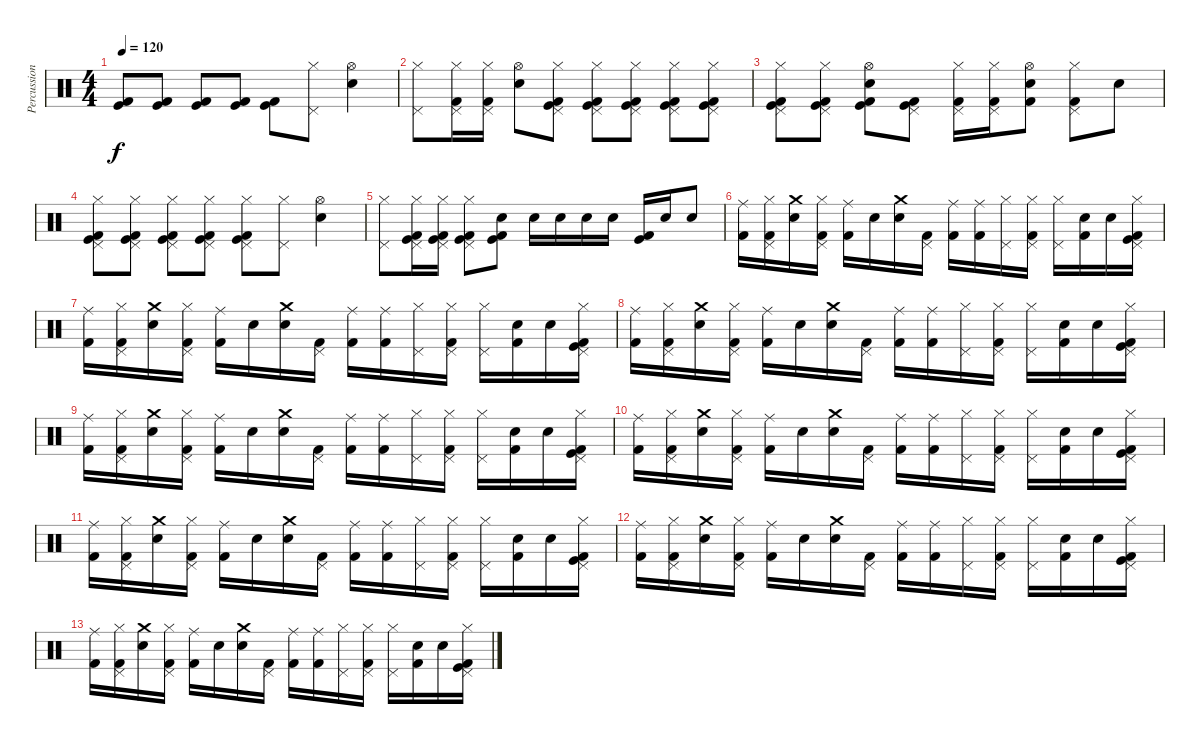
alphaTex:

\track ("Percussion" "Percussion") {instrument percussion}
\staff {score}
\articulation defaults
\ts (4 4)
\tempo 120
\clef neutral
\ks c
("Kick (hit) 2" "Kick (hit)").8{dy f} ("Kick (hit) 2" "Kick (hit)").8 ("Kick (hit) 2" "Kick (hit)").8 ("Kick (hit) 2" "Kick (hit)").8 ("Kick (hit) 2" "Kick (hit)").8 ("Pedal Hi-Hat (hit)" "Hi-Hat (closed)").8 ("Snare (hit) 2" "Hi-Hat (open)").4 |
("Pedal Hi-Hat (hit)" "Hi-Hat (closed)").8 ("Kick (hit) 2" "Pedal Hi-Hat (hit)" "Hi-Hat (closed)").16 ("Kick (hit) 2" "Pedal Hi-Hat (hit)" "Hi-Hat (closed)").16 ("Snare (hit) 2" "Hi-Hat (open)").8 ("Kick (hit) 2" "Pedal Hi-Hat (hit)" "Hi-Hat (closed)" "Kick (hit)").8 ("Kick (hit) 2" "Pedal Hi-Hat (hit)" "Hi-Hat (closed)" "Kick (hit)").8 ("Kick (hit) 2" "Pedal Hi-Hat (hit)" "Hi-Hat (closed)" "Kick (hit)").8 ("Kick (hit) 2" "Pedal Hi-Hat (hit)" "Hi-Hat (closed)" "Kick (hit)").8 ("Kick (hit) 2" "Pedal Hi-Hat (hit)" "Hi-Hat (closed)" "Kick (hit)").8 |
("Kick (hit) 2" "Pedal Hi-Hat (hit)" "Hi-Hat (closed)" "Kick (hit)").8 ("Kick (hit) 2" "Pedal Hi-Hat (hit)" "Hi-Hat (closed)" "Kick (hit)").8 ("Kick (hit) 2" "Snare (hit) 2" "Hi-Hat (open)" "Kick (hit)").8 ("Kick (hit)" "Kick (hit) 2" "Pedal Hi-Hat (hit)").8 ("Pedal Hi-Hat (hit)" "Hi-Hat (closed)" "Kick (hit) 2").16 ("Pedal Hi-Hat (hit)" "Hi-Hat (closed)" "Kick (hit) 2").16 ("Hi-Hat (open)" "Kick (hit) 2" "Snare (hit) 2").8 ("Pedal Hi-Hat (hit)" "Hi-Hat (closed)" "Kick (hit) 2").8 "Snare (hit) 2".8 |
("Hi-Hat (closed)" "Pedal Hi-Hat (hit)" "Kick (hit) 2" "Kick (hit)").8 ("Pedal Hi-Hat (hit)" "Hi-Hat (closed)" "Kick (hit) 2" "Kick (hit)").8 ("Pedal Hi-Hat (hit)" "Hi-Hat (closed)" "Kick (hit) 2" "Kick (hit)").8 ("Hi-Hat (closed)" "Pedal Hi-Hat (hit)" "Kick (hit) 2" "Kick (hit)").8 ("Hi-Hat (closed)" "Pedal Hi-Hat (hit)" "Kick (hit) 2" "Kick (hit)").8 ("Pedal Hi-Hat (hit)" "Hi-Hat (closed)").8 ("Snare (hit) 2" "Hi-Hat (open)").4 |
("Hi-Hat (closed)" "Pedal Hi-Hat (hit)").8 ("Kick (hit)" "Kick (hit) 2" "Pedal Hi-Hat (hit)" "Hi-Hat (closed)").16 ("Kick (hit) 2" "Kick (hit)" "Pedal Hi-Hat (hit)" "Hi-Hat (closed)").16 ("Kick (hit) 2" "Kick (hit)" "Pedal Hi-Hat (hit)" "Hi-Hat (closed)").8 ("Kick (hit) 2" "Kick (hit)" "Snare (hit) 2").8 "Snare (hit) 2".16 "Electric Snare (hit)".16 "Electric Snare (hit)".16 "Electric Snare (hit)".16 ("Kick (hit) 2" "Kick (hit)").16 "Electric Snare (hit)".16 "Snare (hit) 2".8 |
("Ride (middle)" "Kick (hit) 2").16 ("Hi-Hat (closed)" "Pedal Hi-Hat (hit)" "Kick (hit) 2").16 ("Crash medium (hit)" "Snare (hit) 2").16 ("Pedal Hi-Hat (hit)" "Kick (hit) 2" "Hi-Hat (closed)").16 ("Kick (hit) 2" "Ride (middle)").16 "Snare (hit) 2".16 ("Crash medium (hit)" "Electric Snare (hit)").16 ("Kick (hit) 2" "Pedal Hi-Hat (hit)").16 ("Ride (middle)" "Kick (hit) 2").16 ("Ride (middle)" "Kick (hit) 2").16 ("Hi-Hat (closed)" "Pedal Hi-Hat (hit)").16 ("Kick (hit) 2" "Pedal Hi-Hat (hit)" "Hi-Hat (closed)").16 ("Pedal Hi-Hat (hit)" "Hi-Hat (closed)").16 ("Kick (hit) 2" "Snare (hit) 2").16 "Snare (hit) 2".16 ("Kick (hit) 2" "Kick (hit)" "Pedal Hi-Hat (hit)" "Hi-Hat (closed)").16 |
("Ride (middle)" "Kick (hit) 2").16 ("Hi-Hat (closed)" "Pedal Hi-Hat (hit)" "Kick (hit) 2").16 ("Crash medium (hit)" "Snare (hit) 2").16 ("Pedal Hi-Hat (hit)" "Kick (hit) 2" "Hi-Hat (closed)").16 ("Kick (hit) 2" "Ride (middle)").16 "Snare (hit) 2".16 ("Crash medium (hit)" "Electric Snare (hit)").16 ("Kick (hit) 2" "Pedal Hi-Hat (hit)").16 ("Ride (middle)" "Kick (hit) 2").16 ("Ride (middle)" "Kick (hit) 2").16 ("Hi-Hat (closed)" "Pedal Hi-Hat (hit)").16 ("Kick (hit) 2" "Pedal Hi-Hat (hit)" "Hi-Hat (closed)").16 ("Pedal Hi-Hat (hit)" "Hi-Hat (closed)").16 ("Kick (hit) 2" "Snare (hit) 2").16 "Snare (hit) 2".16 ("Kick (hit) 2" "Kick (hit)" "Pedal Hi-Hat (hit)" "Hi-Hat (closed)").16 |
("Ride (middle)" "Kick (hit) 2").16 ("Hi-Hat (closed)" "Pedal Hi-Hat (hit)" "Kick (hit) 2").16 ("Crash medium (hit)" "Snare (hit) 2").16 ("Pedal Hi-Hat (hit)" "Kick (hit) 2" "Hi-Hat (closed)").16 ("Kick (hit) 2" "Ride (middle)").16 "Snare (hit) 2".16 ("Crash medium (hit)" "Electric Snare (hit)").16 ("Kick (hit) 2" "Pedal Hi-Hat (hit)").16 ("Ride (middle)" "Kick (hit) 2").16 ("Ride (middle)" "Kick (hit) 2").16 ("Hi-Hat (closed)" "Pedal Hi-Hat (hit)").16 ("Kick (hit) 2" "Pedal Hi-Hat (hit)" "Hi-Hat (closed)").16 ("Pedal Hi-Hat (hit)" "Hi-Hat (closed)").16 ("Kick (hit) 2" "Snare (hit) 2").16 "Snare (hit) 2".16 ("Kick (hit) 2" "Kick (hit)" "Pedal Hi-Hat (hit)" "Hi-Hat (closed)").16 |
("Ride (middle)" "Kick (hit) 2").16 ("Hi-Hat (closed)" "Pedal Hi-Hat (hit)" "Kick (hit) 2").16 ("Crash medium (hit)" "Snare (hit) 2").16 ("Pedal Hi-Hat (hit)" "Kick (hit) 2" "Hi-Hat (closed)").16 ("Kick (hit) 2" "Ride (middle)").16 "Snare (hit) 2".16 ("Crash medium (hit)" "Electric Snare (hit)").16 ("Kick (hit) 2" "Pedal Hi-Hat (hit)").16 ("Ride (middle)" "Kick (hit) 2").16 ("Ride (middle)" "Kick (hit) 2").16 ("Hi-Hat (closed)" "Pedal Hi-Hat (hit)").16 ("Kick (hit) 2" "Pedal Hi-Hat (hit)" "Hi-Hat (closed)").16 ("Pedal Hi-Hat (hit)" "Hi-Hat (closed)").16 ("Kick (hit) 2" "Snare (hit) 2").16 "Snare (hit) 2".16 ("Kick (hit) 2" "Kick (hit)" "Pedal Hi-Hat (hit)" "Hi-Hat (closed)").16 |
("Ride (middle)" "Kick (hit) 2").16 ("Hi-Hat (closed)" "Pedal Hi-Hat (hit)" "Kick (hit) 2").16 ("Crash medium (hit)" "Snare (hit) 2").16 ("Pedal Hi-Hat (hit)" "Kick (hit) 2" "Hi-Hat (closed)").16 ("Kick (hit) 2" "Ride (middle)").16 "Snare (hit) 2".16 ("Crash medium (hit)" "Electric Snare (hit)").16 ("Kick (hit) 2" "Pedal Hi-Hat (hit)").16 ("Ride (middle)" "Kick (hit) 2").16 ("Ride (middle)" "Kick (hit) 2").16 ("Hi-Hat (closed)" "Pedal Hi-Hat (hit)").16 ("Kick (hit) 2" "Pedal Hi-Hat (hit)" "Hi-Hat (closed)").16 ("Pedal Hi-Hat (hit)" "Hi-Hat (closed)").16 ("Kick (hit) 2" "Snare (hit) 2").16 "Snare (hit) 2".16 ("Kick (hit) 2" "Kick (hit)" "Pedal Hi-Hat (hit)" "Hi-Hat (closed)").16 |
("Ride (middle)" "Kick (hit) 2").16{volume 14} ("Hi-Hat (closed)" "Pedal Hi-Hat (hit)" "Kick (hit) 2").16 ("Crash medium (hit)" "Snare (hit) 2").16 ("Pedal Hi-Hat (hit)" "Kick (hit) 2" "Hi-Hat (closed)").16 ("Kick (hit) 2" "Ride (middle)").16 "Snare (hit) 2".16 ("Crash medium (hit)" "Electric Snare (hit)").16 ("Kick (hit) 2" "Pedal Hi-Hat (hit)").16 ("Ride (middle)" "Kick (hit) 2").16{volume 12} ("Ride (middle)" "Kick (hit) 2").16 ("Hi-Hat (closed)" "Pedal Hi-Hat (hit)").16 ("Kick (hit) 2" "Pedal Hi-Hat (hit)" "Hi-Hat (closed)").16 ("Pedal Hi-Hat (hit)" "Hi-Hat (closed)").16 ("Kick (hit) 2" "Snare (hit) 2").16 "Snare (hit) 2".16 ("Kick (hit) 2" "Kick (hit)" "Pedal Hi-Hat (hit)" "Hi-Hat (closed)").16 |
("Ride (middle)" "Kick (hit) 2").16{volume 10} ("Hi-Hat (closed)" "Pedal Hi-Hat (hit)" "Kick (hit) 2").16 ("Crash medium (hit)" "Snare (hit) 2").16 ("Pedal Hi-Hat (hit)" "Kick (hit) 2" "Hi-Hat (closed)").16 ("Kick (hit) 2" "Ride (middle)").16 "Snare (hit) 2".16 ("Crash medium (hit)" "Electric Snare (hit)").16 ("Kick (hit) 2" "Pedal Hi-Hat (hit)").16 ("Ride (middle)" "Kick (hit) 2").16{volume 8} ("Ride (middle)" "Kick (hit) 2").16 ("Hi-Hat (closed)" "Pedal Hi-Hat (hit)").16 ("Kick (hit) 2" "Pedal Hi-Hat (hit)" "Hi-Hat (closed)").16 ("Pedal Hi-Hat (hit)" "Hi-Hat (closed)").16 ("Kick (hit) 2" "Snare (hit) 2").16 "Snare (hit) 2".16 ("Kick (hit) 2" "Kick (hit)" "Pedal Hi-Hat (hit)" "Hi-Hat (closed)").16 |
("Ride (middle)" "Kick (hit) 2").16{volume 6} ("Hi-Hat (closed)" "Pedal Hi-Hat (hit)" "Kick (hit) 2").16 ("Crash medium (hit)" "Snare (hit) 2").16 ("Pedal Hi-Hat (hit)" "Kick (hit) 2" "Hi-Hat (closed)").16 ("Kick (hit) 2" "Ride (middle)").16 "Snare (hit) 2".16 ("Crash medium (hit)" "Electric Snare (hit)").16 ("Kick (hit) 2" "Pedal Hi-Hat (hit)").16 ("Ride (middle)" "Kick (hit) 2").16{volume 4} ("Ride (middle)" "Kick (hit) 2").16 ("Hi-Hat (closed)" "Pedal Hi-Hat (hit)").16 ("Kick (hit) 2" "Pedal Hi-Hat (hit)" "Hi-Hat (closed)").16 ("Pedal Hi-Hat (hit)" "Hi-Hat (closed)").16 ("Kick (hit) 2" "Snare (hit) 2").16 "Snare (hit) 2".16 ("Kick (hit) 2" "Kick (hit)" "Pedal Hi-Hat (hit)" "Hi-Hat (closed)").16
